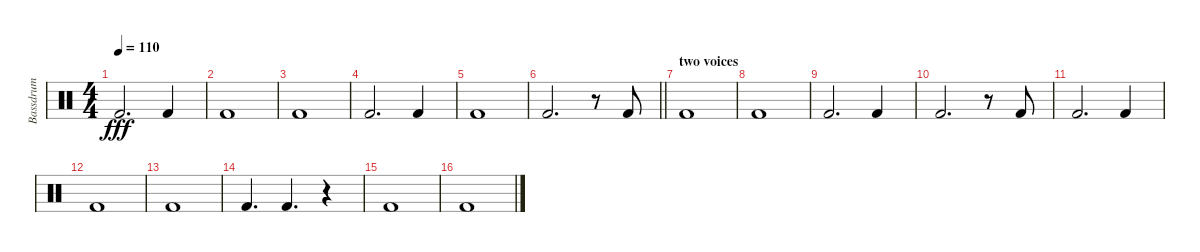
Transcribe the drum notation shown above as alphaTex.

\track ("Bassdrum" "Bassdrum") {instrument percussion}
\staff {score}
\articulation defaults
\ts (4 4)
\tempo 110
\clef neutral
\ks c "Kick (hit) 2".2{d dy fff} "Kick (hit) 2".4
|
"Kick (hit) 2".1 |
"Kick (hit) 2".1 |
"Kick (hit) 2".2{d} "Kick (hit) 2".4 |
"Kick (hit) 2".1 |
\barLineRight lightlight "Kick (hit) 2".2{d}
r.8 "Kick (hit) 2".8 |
\section ("" "two voices")
"Kick (hit) 2".1 |
"Kick (hit) 2".1 |
"Kick (hit) 2".2{d} "Kick (hit) 2".4 |
"Kick (hit) 2".2{d} r.8 "Kick (hit) 2".8 |
"Kick (hit) 2".2{d} "Kick (hit) 2".4 |
"Kick (hit) 2".1 |
"Kick (hit) 2".1 |
"Kick (hit) 2".4{d} "Kick (hit) 2".4{d} r.4 |
"Kick (hit) 2".1 |
"Kick (hit) 2".1
